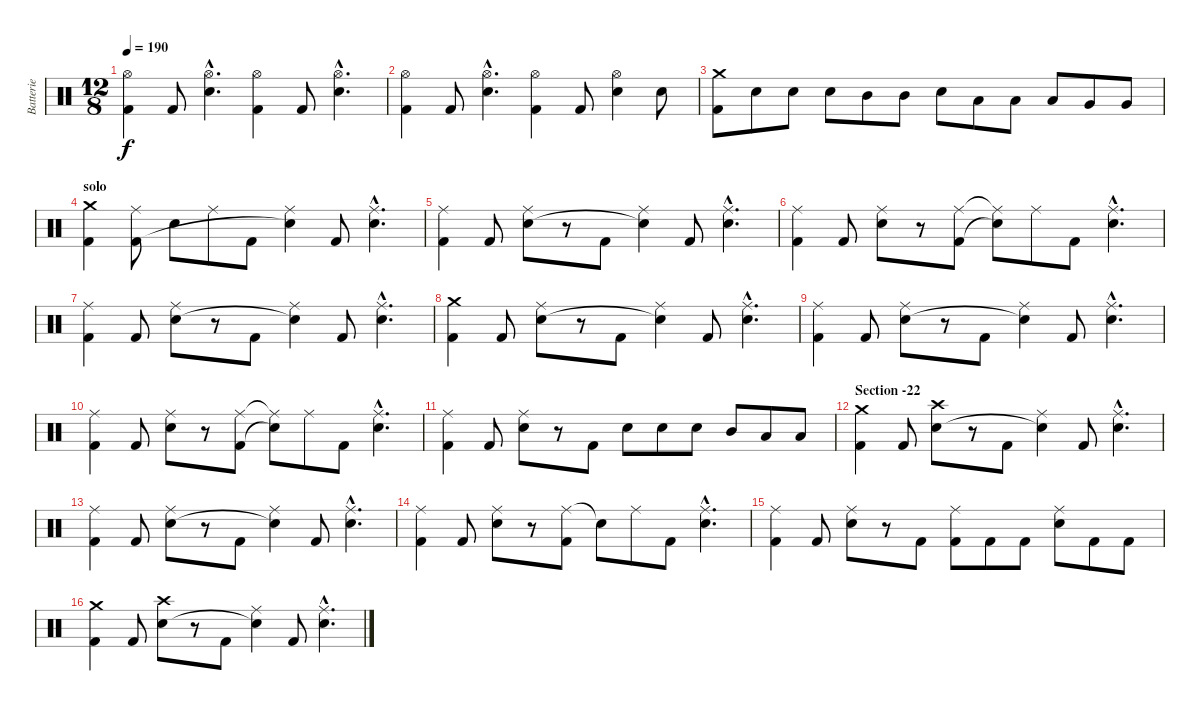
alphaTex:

\track ("Batterie" "Batterie") {instrument percussion}
\staff {score}
\articulation defaults
\ts (12 8)
\tempo 190
\clef neutral
\ks c
("Hi-Hat (open)" "Kick (hit) 2").4{dy f} "Kick (hit) 2".8 ("Hi-Hat (open)"{hac} "Snare (hit) 2"{hac}).4{d} ("Hi-Hat (open)" "Kick (hit) 2").4 "Kick (hit) 2".8 ("Hi-Hat (open)"{hac} "Snare (hit) 2"{hac}).4{d} |
("Hi-Hat (open)" "Kick (hit) 2").4 "Kick (hit) 2".8 ("Hi-Hat (open)"{hac} "Snare (hit) 2"{hac}).4{d} ("Hi-Hat (open)" "Kick (hit) 2").4 "Kick (hit) 2".8 ("Hi-Hat (open)" "Snare (hit) 2").4 "Snare (hit) 2".8 |
("Crash medium (hit)" "Kick (hit) 2").8 "Snare (hit) 2".8 "Snare (hit) 2".8 "Snare (hit) 2".8 "Mid Tom (hit)".8 "Mid Tom (hit)".8 "Snare (hit) 2".8 "Low Tom (hit)".8 "Low Tom (hit)".8 "Low Tom (hit)".8 "Very Low Tom (hit)".8 "Very Low Tom (hit)".8 |
\section ("" "solo")
("Crash medium (hit)" "Kick (hit) 2").4 ("Ride (middle)" "Kick (hit) 2").8 "Snare (hit) 2".8 "Ride (middle)".8 "Kick (hit) 2".8 ("Ride (middle)" "Snare (hit)"{t}).4 "Kick (hit) 2".8 ("Ride (middle)"{hac} "Snare (hit) 2"{hac}).4{d} |
("Ride (middle)" "Kick (hit) 2").4 "Kick (hit) 2".8 ("Ride (middle)" "Snare (hit) 2").8 r.8 "Kick (hit) 2".8 ("Ride (middle)" "Snare (hit)"{t}).4 "Kick (hit) 2".8 ("Ride (middle)"{hac} "Snare (hit) 2"{hac}).4{d} |
("Ride (middle)" "Kick (hit) 2").4 "Kick (hit) 2".8 ("Ride (middle)" "Snare (hit) 2").8 r.8 ("Ride (middle)" "Kick (hit) 2").8 ("Ride (middle)"{t} "Snare (hit)"{t}).8 "Ride (middle)".8 "Kick (hit) 2".8 ("Ride (middle)"{hac} "Snare (hit) 2"{hac}).4{d} |
("Ride (middle)" "Kick (hit) 2").4 "Kick (hit) 2".8 ("Ride (middle)" "Snare (hit) 2").8 r.8 "Kick (hit) 2".8 ("Ride (middle)" "Snare (hit)"{t}).4 "Kick (hit) 2".8 ("Ride (middle)"{hac} "Snare (hit) 2"{hac}).4{d} |
("Crash medium (hit)" "Kick (hit) 2").4 "Kick (hit) 2".8 ("Ride (middle)" "Snare (hit) 2").8 r.8 "Kick (hit) 2".8 ("Ride (middle)" "Snare (hit)"{t}).4 "Kick (hit) 2".8 ("Ride (middle)"{hac} "Snare (hit) 2"{hac}).4{d} |
("Ride (middle)" "Kick (hit) 2").4 "Kick (hit) 2".8 ("Ride (middle)" "Snare (hit) 2").8 r.8 "Kick (hit) 2".8 ("Ride (middle)" "Snare (hit)"{t}).4 "Kick (hit) 2".8 ("Ride (middle)"{hac} "Snare (hit) 2"{hac}).4{d} |
("Ride (middle)" "Kick (hit) 2").4 "Kick (hit) 2".8 ("Ride (middle)" "Snare (hit) 2").8 r.8 ("Ride (middle)" "Kick (hit) 2").8 ("Ride (middle)"{t} "Snare (hit)"{t}).8 "Ride (middle)".8 "Kick (hit) 2".8 ("Ride (middle)"{hac} "Snare (hit) 2"{hac}).4{d} |
("Ride (middle)" "Kick (hit) 2").4 "Kick (hit) 2".8 ("Ride (middle)" "Snare (hit) 2").8 r.8 "Kick (hit) 2".8 "Snare (hit) 2".8 "Snare (hit) 2".8 "Snare (hit) 2".8 "Mid Tom (hit)".8 "Low Tom (hit)".8 "Low Tom (hit)".8 |
\section ("" "Section -22")
("Crash medium (hit)" "Kick (hit) 2").4 "Kick (hit) 2".8 ("Crash high (hit)" "Snare (hit) 2").8 r.8 "Kick (hit) 2".8 ("Ride (middle)" "Snare (hit)"{t}).4 "Kick (hit) 2".8 ("Ride (middle)"{hac} "Snare (hit) 2"{hac}).4{d} |
("Ride (middle)" "Kick (hit) 2").4 "Kick (hit) 2".8 ("Ride (middle)" "Snare (hit) 2").8 r.8 "Kick (hit) 2".8 ("Ride (middle)" "Snare (hit)"{t}).4 "Kick (hit) 2".8 ("Ride (middle)"{hac} "Snare (hit) 2"{hac}).4{d} |
("Ride (middle)" "Kick (hit) 2").4 "Kick (hit) 2".8 ("Ride (middle)" "Snare (hit) 2").8 r.8 ("Ride (middle)" "Kick (hit) 2").8 "Snare (hit)"{t}.8 "Ride (middle)".8 "Kick (hit) 2".8 ("Ride (middle)"{hac} "Snare (hit) 2"{hac}).4{d} |
("Ride (middle)" "Kick (hit) 2").4 "Kick (hit) 2".8 ("Ride (middle)" "Snare (hit) 2").8 r.8 "Kick (hit) 2".8 ("Ride (middle)" "Kick (hit) 2").8 "Kick (hit) 2".8 "Kick (hit) 2".8 ("Ride (middle)" "Snare (hit) 2").8 "Kick (hit) 2".8 "Kick (hit) 2".8 |
("Crash medium (hit)" "Kick (hit) 2").4 "Kick (hit) 2".8 ("Crash high (hit)" "Snare (hit) 2").8 r.8 "Kick (hit) 2".8 ("Ride (middle)" "Snare (hit)"{t}).4 "Kick (hit) 2".8 ("Ride (middle)"{hac} "Snare (hit) 2"{hac}).4{d}
